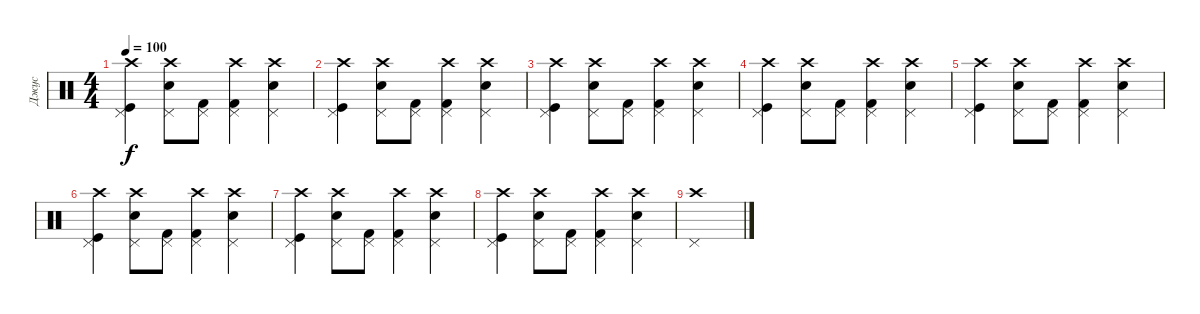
\track ("Джус" "Джус") {instrument percussion}
\staff {score}
\articulation defaults
\ts (4 4)
\tempo 100
\clef neutral
\ks c
("Crash high (hit)" "Pedal Hi-Hat (hit)" "Kick (hit)").4{dy f} ("Crash high (hit)" "Pedal Hi-Hat (hit)" "Electric Snare (hit)").8 ("Pedal Hi-Hat (hit)" "Kick (hit) 2").8 ("Crash high (hit)" "Pedal Hi-Hat (hit)" "Kick (hit) 2").4 ("Crash high (hit)" "Pedal Hi-Hat (hit)" "Electric Snare (hit)").4 |
("Crash high (hit)" "Pedal Hi-Hat (hit)" "Kick (hit)").4 ("Crash high (hit)" "Pedal Hi-Hat (hit)" "Electric Snare (hit)").8 ("Pedal Hi-Hat (hit)" "Kick (hit) 2").8 ("Crash high (hit)" "Pedal Hi-Hat (hit)" "Kick (hit) 2").4 ("Crash high (hit)" "Pedal Hi-Hat (hit)" "Electric Snare (hit)").4 |
("Crash high (hit)" "Pedal Hi-Hat (hit)" "Kick (hit)").4 ("Crash high (hit)" "Pedal Hi-Hat (hit)" "Electric Snare (hit)").8 ("Pedal Hi-Hat (hit)" "Kick (hit) 2").8 ("Crash high (hit)" "Pedal Hi-Hat (hit)" "Kick (hit) 2").4 ("Crash high (hit)" "Pedal Hi-Hat (hit)" "Electric Snare (hit)").4 |
("Crash high (hit)" "Pedal Hi-Hat (hit)" "Kick (hit)").4 ("Crash high (hit)" "Pedal Hi-Hat (hit)" "Electric Snare (hit)").8 ("Pedal Hi-Hat (hit)" "Kick (hit) 2").8 ("Crash high (hit)" "Pedal Hi-Hat (hit)" "Kick (hit) 2").4 ("Crash high (hit)" "Pedal Hi-Hat (hit)" "Electric Snare (hit)").4 |
("Crash high (hit)" "Pedal Hi-Hat (hit)" "Kick (hit)").4 ("Crash high (hit)" "Pedal Hi-Hat (hit)" "Electric Snare (hit)").8 ("Pedal Hi-Hat (hit)" "Kick (hit) 2").8 ("Crash high (hit)" "Pedal Hi-Hat (hit)" "Kick (hit) 2").4 ("Crash high (hit)" "Pedal Hi-Hat (hit)" "Electric Snare (hit)").4 |
("Crash high (hit)" "Pedal Hi-Hat (hit)" "Kick (hit)").4 ("Crash high (hit)" "Pedal Hi-Hat (hit)" "Electric Snare (hit)").8 ("Pedal Hi-Hat (hit)" "Kick (hit) 2").8 ("Crash high (hit)" "Pedal Hi-Hat (hit)" "Kick (hit) 2").4 ("Crash high (hit)" "Pedal Hi-Hat (hit)" "Electric Snare (hit)").4 |
("Crash high (hit)" "Pedal Hi-Hat (hit)" "Kick (hit)").4 ("Crash high (hit)" "Pedal Hi-Hat (hit)" "Electric Snare (hit)").8 ("Pedal Hi-Hat (hit)" "Kick (hit) 2").8 ("Crash high (hit)" "Pedal Hi-Hat (hit)" "Kick (hit) 2").4 ("Crash high (hit)" "Pedal Hi-Hat (hit)" "Electric Snare (hit)").4 |
("Crash high (hit)" "Pedal Hi-Hat (hit)" "Kick (hit)").4 ("Crash high (hit)" "Pedal Hi-Hat (hit)" "Electric Snare (hit)").8 ("Pedal Hi-Hat (hit)" "Kick (hit) 2").8 ("Crash high (hit)" "Pedal Hi-Hat (hit)" "Kick (hit) 2").4 ("Crash high (hit)" "Pedal Hi-Hat (hit)" "Electric Snare (hit)").4 |
("Crash high (hit)" "Pedal Hi-Hat (hit)").1
